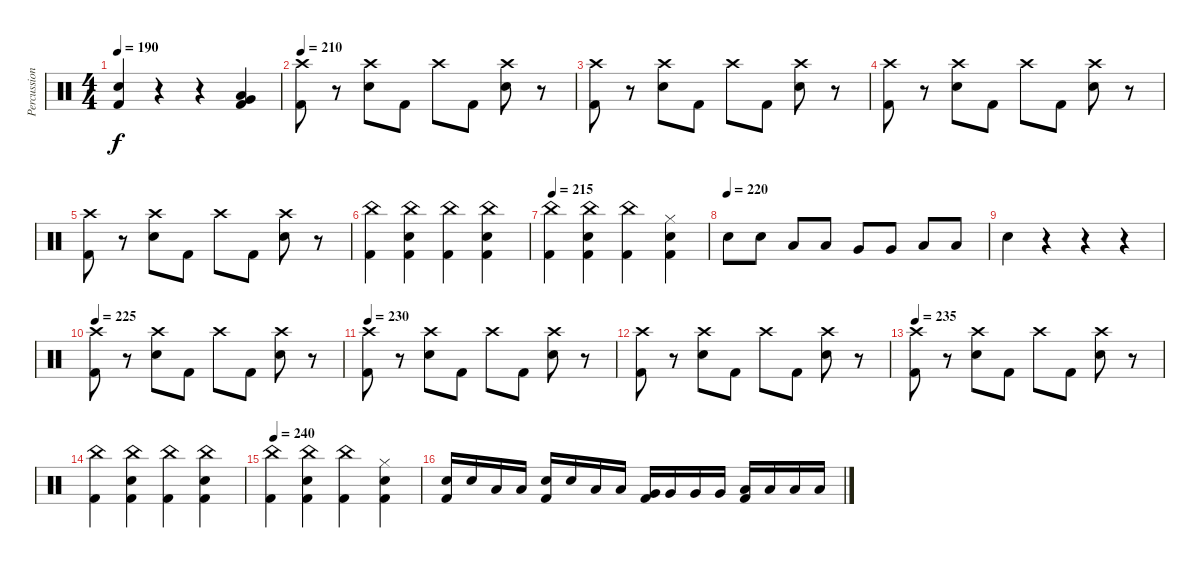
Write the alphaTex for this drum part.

\track ("Percussion" "Percussion") {instrument percussion}
\staff {score}
\articulation defaults
\ts (4 4)
\tempo 190
\clef neutral
\ks c
("Snare (hit) 2" "Kick (hit) 2").4{dy f} r.4 r.4 ("Low Tom (hit)" "Very Low Tom (hit)" "Kick (hit) 2").4 |
\tempo 210
("Crash high (hit)" "Kick (hit) 2").8 r.8 ("Crash high (hit)" "Snare (hit) 2").8 "Kick (hit) 2".8 "Crash high (hit)".8 "Kick (hit) 2".8 ("Crash high (hit)" "Snare (hit) 2").8 r.8 |
("Crash high (hit)" "Kick (hit) 2").8 r.8 ("Crash high (hit)" "Snare (hit) 2").8 "Kick (hit) 2".8 "Crash high (hit)".8 "Kick (hit) 2".8 ("Crash high (hit)" "Snare (hit) 2").8 r.8 |
("Crash high (hit)" "Kick (hit) 2").8 r.8 ("Crash high (hit)" "Snare (hit) 2").8 "Kick (hit) 2".8 "Crash high (hit)".8 "Kick (hit) 2".8 ("Crash high (hit)" "Snare (hit) 2").8 r.8 |
("Crash high (hit)" "Kick (hit) 2").8 r.8 ("Crash high (hit)" "Snare (hit) 2").8 "Kick (hit) 2".8 "Crash high (hit)".8 "Kick (hit) 2".8 ("Crash high (hit)" "Snare (hit) 2").8 r.8 |
("China (hit)" "Kick (hit) 2").4 ("China (hit)" "Snare (hit) 2" "Kick (hit) 2").4 ("China (hit)" "Kick (hit) 2").4 ("China (hit)" "Snare (hit) 2" "Kick (hit) 2").4 |
\tempo 215
("China (hit)" "Kick (hit) 2").4 ("China (hit)" "Snare (hit) 2" "Kick (hit) 2").4 ("China (hit)" "Kick (hit) 2").4 ("Hi-Hat (closed)" "Snare (hit) 2" "Kick (hit) 2").4 |
\tempo (220)
"Snare (hit) 2".8 "Snare (hit) 2".8 "Low Tom (hit)".8 "Low Tom (hit)".8 "Very Low Tom (hit)".8 "Very Low Tom (hit)".8 "Low Floor Tom (hit)".8 "Low Floor Tom (hit)".8 |
"Snare (hit) 2".4 r.4 r.4 r.4 |
\tempo 225
("Crash high (hit)" "Kick (hit) 2").8 r.8 ("Crash high (hit)" "Snare (hit) 2").8 "Kick (hit) 2".8 "Crash high (hit)".8 "Kick (hit) 2".8 ("Crash high (hit)" "Snare (hit) 2").8 r.8 |
\tempo 230
("Crash high (hit)" "Kick (hit) 2").8 r.8 ("Crash high (hit)" "Snare (hit) 2").8 "Kick (hit) 2".8 "Crash high (hit)".8 "Kick (hit) 2".8 ("Crash high (hit)" "Snare (hit) 2").8 r.8 |
("Crash high (hit)" "Kick (hit) 2").8 r.8 ("Crash high (hit)" "Snare (hit) 2").8 "Kick (hit) 2".8 "Crash high (hit)".8 "Kick (hit) 2".8 ("Crash high (hit)" "Snare (hit) 2").8 r.8 |
\tempo 235
("Crash high (hit)" "Kick (hit) 2").8 r.8 ("Crash high (hit)" "Snare (hit) 2").8 "Kick (hit) 2".8 "Crash high (hit)".8 "Kick (hit) 2".8 ("Crash high (hit)" "Snare (hit) 2").8 r.8 |
("China (hit)" "Kick (hit) 2").4 ("China (hit)" "Snare (hit) 2" "Kick (hit) 2").4 ("China (hit)" "Kick (hit) 2").4 ("China (hit)" "Snare (hit) 2" "Kick (hit) 2").4 |
\tempo 240
("China (hit)" "Kick (hit) 2").4 ("China (hit)" "Snare (hit) 2" "Kick (hit) 2").4 ("China (hit)" "Kick (hit) 2").4 ("Hi-Hat (closed)" "Snare (hit) 2" "Kick (hit) 2").4 |
("Snare (hit) 2" "Kick (hit) 2").16 "Snare (hit) 2".16 "Low Tom (hit)".16 "Low Tom (hit)".16 ("Snare (hit) 2" "Kick (hit) 2").16 "Snare (hit) 2".16 "Low Tom (hit)".16 "Low Tom (hit)".16 ("Very Low Tom (hit)" "Kick (hit) 2").16 "Very Low Tom (hit)".16 "Very Low Tom (hit)".16 "Very Low Tom (hit)".16 ("Low Floor Tom (hit)" "Kick (hit) 2").16 "Low Floor Tom (hit)".16 "Low Floor Tom (hit)".16 "Low Floor Tom (hit)".16
